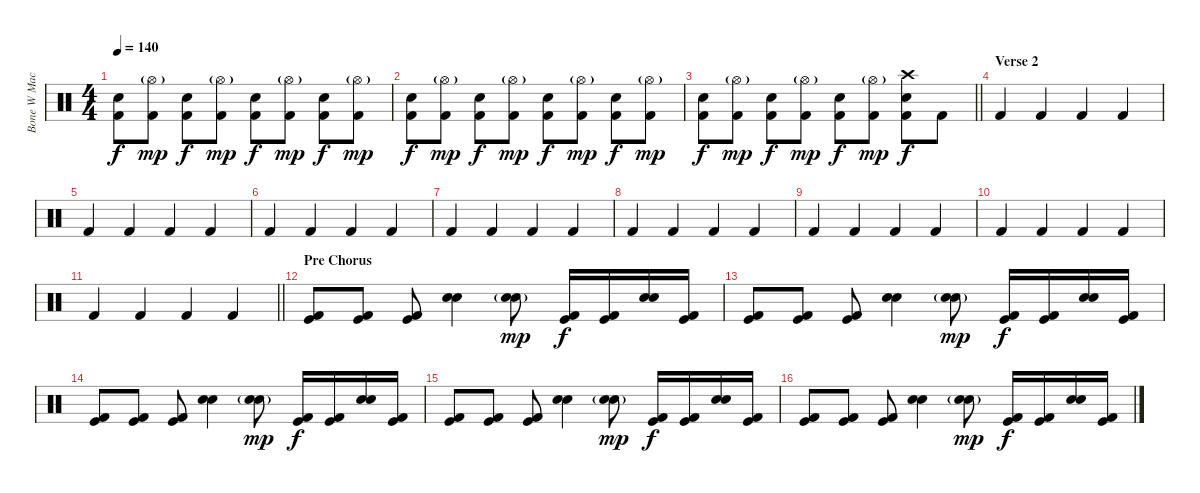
\track ("Bone W Machine" "Bone W Mac") {instrument percussion}
\staff {score}
\articulation defaults
\ts (4 4)
\tempo 140
\clef neutral
\ks c
("Electric Snare (hit)" "Kick (hit) 2").8{dy f} ("Hi-Hat (open)"{g} "Kick (hit) 2").8{dy mp} ("Electric Snare (hit)" "Kick (hit) 2").8{dy f} ("Hi-Hat (open)"{g} "Kick (hit) 2").8{dy mp} ("Electric Snare (hit)" "Kick (hit) 2").8{dy f} ("Hi-Hat (open)"{g} "Kick (hit) 2").8{dy mp} ("Electric Snare (hit)" "Kick (hit) 2").8{dy f} ("Hi-Hat (open)"{g} "Kick (hit) 2").8{dy mp} |
("Electric Snare (hit)" "Kick (hit) 2").8{dy f} ("Hi-Hat (open)"{g} "Kick (hit) 2").8{dy mp} ("Electric Snare (hit)" "Kick (hit) 2").8{dy f} ("Hi-Hat (open)"{g} "Kick (hit) 2").8{dy mp} ("Electric Snare (hit)" "Kick (hit) 2").8{dy f} ("Hi-Hat (open)"{g} "Kick (hit) 2").8{dy mp} ("Electric Snare (hit)" "Kick (hit) 2").8{dy f} ("Hi-Hat (open)"{g} "Kick (hit) 2").8{dy mp} |
\barLineRight lightlight
("Electric Snare (hit)" "Kick (hit) 2").8{dy f} ("Hi-Hat (open)"{g} "Kick (hit) 2").8{dy mp} ("Electric Snare (hit)" "Kick (hit) 2").8{dy f} ("Hi-Hat (open)"{g} "Kick (hit) 2").8{dy mp} ("Electric Snare (hit)" "Kick (hit) 2").8{dy f} ("Hi-Hat (open)"{g} "Kick (hit) 2").8{dy mp} ("Crash high (hit)" "Electric Snare (hit)" "Kick (hit) 2").8{dy f} "Kick (hit) 2".8 |
\section ("" "Verse 2")
"Kick (hit) 2".4 "Kick (hit) 2".4 "Kick (hit) 2".4 "Kick (hit) 2".4 |
"Kick (hit) 2".4 "Kick (hit) 2".4 "Kick (hit) 2".4 "Kick (hit) 2".4 |
"Kick (hit) 2".4 "Kick (hit) 2".4 "Kick (hit) 2".4 "Kick (hit) 2".4 |
"Kick (hit) 2".4 "Kick (hit) 2".4 "Kick (hit) 2".4 "Kick (hit) 2".4 |
"Kick (hit) 2".4 "Kick (hit) 2".4 "Kick (hit) 2".4 "Kick (hit) 2".4 |
"Kick (hit) 2".4 "Kick (hit) 2".4 "Kick (hit) 2".4 "Kick (hit) 2".4 |
"Kick (hit) 2".4 "Kick (hit) 2".4 "Kick (hit) 2".4 "Kick (hit) 2".4 |
\barLineRight lightlight "Kick (hit) 2".4 "Kick (hit) 2".4 "Kick (hit) 2".4 "Kick (hit) 2".4
|
\section ("" "Pre Chorus")
("Kick (hit)" "Kick (hit) 2").8 ("Kick (hit)" "Kick (hit) 2").8 ("Kick (hit)" "Kick (hit) 2").8 ("Snare (hit) 2" "Electric Snare (hit)").4 ("Snare (hit) 2"{g} "Electric Snare (hit)"{g}).8{dy mp} ("Kick (hit)" "Kick (hit) 2").16{dy f} ("Kick (hit)" "Kick (hit) 2").16 ("Snare (hit) 2" "Electric Snare (hit)").16 ("Kick (hit)" "Kick (hit) 2").16 |
("Kick (hit)" "Kick (hit) 2").8 ("Kick (hit)" "Kick (hit) 2").8 ("Kick (hit)" "Kick (hit) 2").8 ("Snare (hit) 2" "Electric Snare (hit)").4 ("Snare (hit) 2"{g} "Electric Snare (hit)"{g}).8{dy mp} ("Kick (hit)" "Kick (hit) 2").16{dy f} ("Kick (hit)" "Kick (hit) 2").16 ("Snare (hit) 2" "Electric Snare (hit)").16 ("Kick (hit)" "Kick (hit) 2").16 |
("Kick (hit)" "Kick (hit) 2").8 ("Kick (hit)" "Kick (hit) 2").8 ("Kick (hit)" "Kick (hit) 2").8 ("Snare (hit) 2" "Electric Snare (hit)").4 ("Snare (hit) 2"{g} "Electric Snare (hit)"{g}).8{dy mp} ("Kick (hit)" "Kick (hit) 2").16{dy f} ("Kick (hit)" "Kick (hit) 2").16 ("Snare (hit) 2" "Electric Snare (hit)").16 ("Kick (hit)" "Kick (hit) 2").16 |
("Kick (hit)" "Kick (hit) 2").8 ("Kick (hit)" "Kick (hit) 2").8 ("Kick (hit)" "Kick (hit) 2").8 ("Snare (hit) 2" "Electric Snare (hit)").4 ("Snare (hit) 2"{g} "Electric Snare (hit)"{g}).8{dy mp} ("Kick (hit)" "Kick (hit) 2").16{dy f} ("Kick (hit)" "Kick (hit) 2").16 ("Snare (hit) 2" "Electric Snare (hit)").16 ("Kick (hit)" "Kick (hit) 2").16 |
("Kick (hit)" "Kick (hit) 2").8 ("Kick (hit)" "Kick (hit) 2").8 ("Kick (hit)" "Kick (hit) 2").8 ("Snare (hit) 2" "Electric Snare (hit)").4 ("Snare (hit) 2"{g} "Electric Snare (hit)"{g}).8{dy mp} ("Kick (hit)" "Kick (hit) 2").16{dy f} ("Kick (hit)" "Kick (hit) 2").16 ("Snare (hit) 2" "Electric Snare (hit)").16 ("Kick (hit)" "Kick (hit) 2").16
